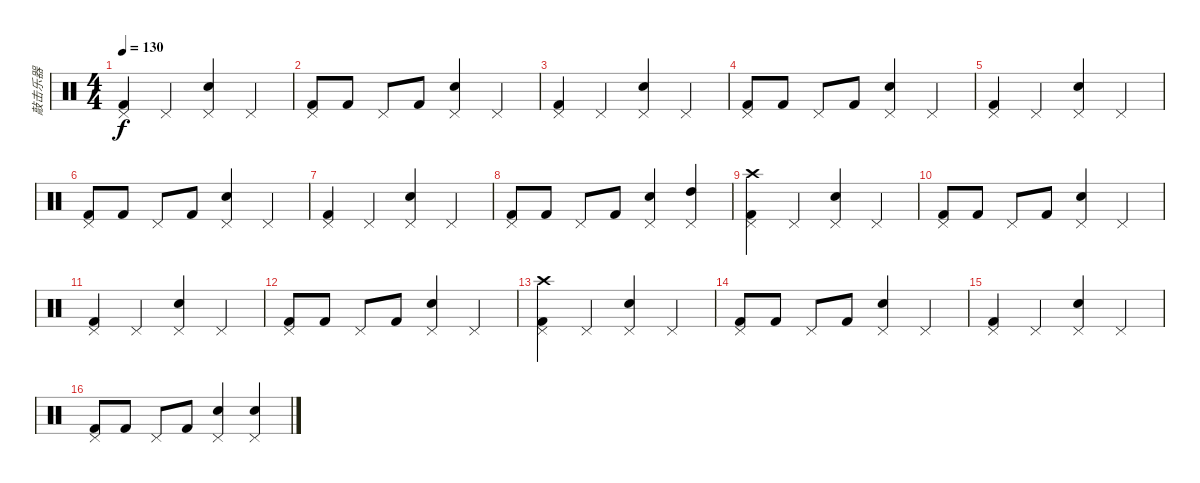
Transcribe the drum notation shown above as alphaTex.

\track ("敲击乐器" "敲击乐器") {instrument percussion}
\staff {score}
\articulation defaults
\ts (4 4)
\tempo 130
\clef neutral
\ks c
("Kick (hit) 2" "Pedal Hi-Hat (hit)").4{dy f} "Pedal Hi-Hat (hit)".4 ("Pedal Hi-Hat (hit)" "Electric Snare (hit)").4 "Pedal Hi-Hat (hit)".4 |
("Pedal Hi-Hat (hit)" "Kick (hit) 2").8 "Kick (hit) 2".8 "Pedal Hi-Hat (hit)".8 "Kick (hit) 2".8 ("Pedal Hi-Hat (hit)" "Electric Snare (hit)").4 "Pedal Hi-Hat (hit)".4 |
("Kick (hit) 2" "Pedal Hi-Hat (hit)").4 "Pedal Hi-Hat (hit)".4 ("Pedal Hi-Hat (hit)" "Electric Snare (hit)").4 "Pedal Hi-Hat (hit)".4 |
("Pedal Hi-Hat (hit)" "Kick (hit) 2").8 "Kick (hit) 2".8 "Pedal Hi-Hat (hit)".8 "Kick (hit) 2".8 ("Pedal Hi-Hat (hit)" "Electric Snare (hit)").4 "Pedal Hi-Hat (hit)".4 |
("Kick (hit) 2" "Pedal Hi-Hat (hit)").4 "Pedal Hi-Hat (hit)".4 ("Pedal Hi-Hat (hit)" "Electric Snare (hit)").4 "Pedal Hi-Hat (hit)".4 |
("Pedal Hi-Hat (hit)" "Kick (hit) 2").8 "Kick (hit) 2".8 "Pedal Hi-Hat (hit)".8 "Kick (hit) 2".8 ("Pedal Hi-Hat (hit)" "Electric Snare (hit)").4 "Pedal Hi-Hat (hit)".4 |
("Kick (hit) 2" "Pedal Hi-Hat (hit)").4 "Pedal Hi-Hat (hit)".4 ("Pedal Hi-Hat (hit)" "Electric Snare (hit)").4 "Pedal Hi-Hat (hit)".4 |
("Pedal Hi-Hat (hit)" "Kick (hit) 2").8 "Kick (hit) 2".8 "Pedal Hi-Hat (hit)".8 "Kick (hit) 2".8 ("Pedal Hi-Hat (hit)" "Electric Snare (hit)").4 ("Pedal Hi-Hat (hit)" "High Tom (hit)").4 |
("Crash high (hit)" "Kick (hit) 2" "Pedal Hi-Hat (hit)").4 "Pedal Hi-Hat (hit)".4 ("Pedal Hi-Hat (hit)" "Electric Snare (hit)").4 "Pedal Hi-Hat (hit)".4 |
("Pedal Hi-Hat (hit)" "Kick (hit) 2").8 "Kick (hit) 2".8 "Pedal Hi-Hat (hit)".8 "Kick (hit) 2".8 ("Pedal Hi-Hat (hit)" "Electric Snare (hit)").4 "Pedal Hi-Hat (hit)".4 |
("Kick (hit) 2" "Pedal Hi-Hat (hit)").4 "Pedal Hi-Hat (hit)".4 ("Pedal Hi-Hat (hit)" "Electric Snare (hit)").4 "Pedal Hi-Hat (hit)".4 |
("Pedal Hi-Hat (hit)" "Kick (hit) 2").8 "Kick (hit) 2".8 "Pedal Hi-Hat (hit)".8 "Kick (hit) 2".8 ("Pedal Hi-Hat (hit)" "Electric Snare (hit)").4 "Pedal Hi-Hat (hit)".4 |
("Crash high (hit)" "Kick (hit) 2" "Pedal Hi-Hat (hit)").4 "Pedal Hi-Hat (hit)".4 ("Pedal Hi-Hat (hit)" "Electric Snare (hit)").4 "Pedal Hi-Hat (hit)".4 |
("Pedal Hi-Hat (hit)" "Kick (hit) 2").8 "Kick (hit) 2".8 "Pedal Hi-Hat (hit)".8 "Kick (hit) 2".8 ("Pedal Hi-Hat (hit)" "Electric Snare (hit)").4 "Pedal Hi-Hat (hit)".4 |
("Kick (hit) 2" "Pedal Hi-Hat (hit)").4 "Pedal Hi-Hat (hit)".4 ("Pedal Hi-Hat (hit)" "Electric Snare (hit)").4 "Pedal Hi-Hat (hit)".4 |
("Pedal Hi-Hat (hit)" "Kick (hit) 2").8 "Kick (hit) 2".8 "Pedal Hi-Hat (hit)".8 "Kick (hit) 2".8 ("Pedal Hi-Hat (hit)" "Electric Snare (hit)").4 ("Pedal Hi-Hat (hit)" "Electric Snare (hit)").4
